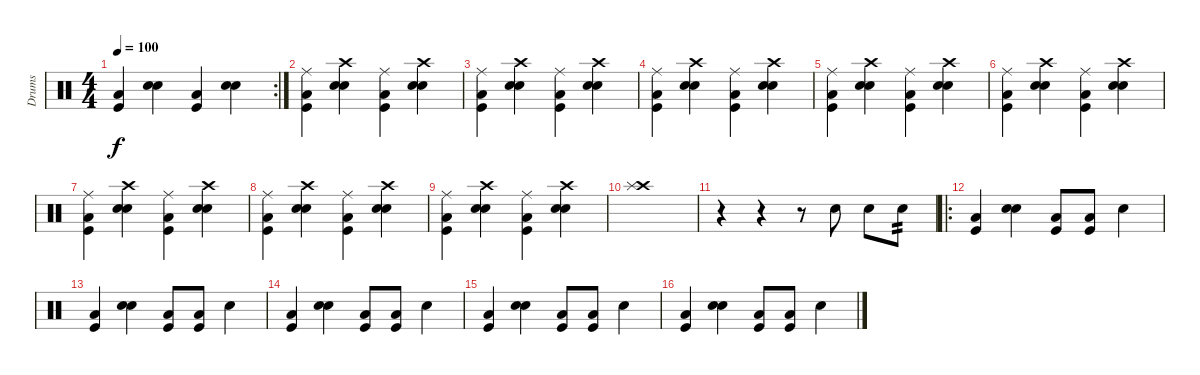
\track ("Drums" "Drums") {instrument percussion}
\staff {score}
\articulation defaults
\rc 2
\ts (4 4)
\tempo 100
\clef neutral
\ks c
("Kick (hit)" "Low Floor Tom (hit)").4{dy f} ("Snare (hit) 2" "Electric Snare (hit)").4 ("Kick (hit)" "Low Floor Tom (hit)").4 ("Snare (hit) 2" "Electric Snare (hit)").4 |
("Ride (middle)" "Kick (hit)" "Low Floor Tom (hit)").4 ("Crash high (hit)" "Snare (hit) 2" "Electric Snare (hit)").4 ("Ride (middle)" "Kick (hit)" "Low Floor Tom (hit)").4 ("Crash high (hit)" "Snare (hit) 2" "Electric Snare (hit)").4 |
("Ride (middle)" "Kick (hit)" "Low Floor Tom (hit)").4 ("Crash high (hit)" "Snare (hit) 2" "Electric Snare (hit)").4 ("Ride (middle)" "Kick (hit)" "Low Floor Tom (hit)").4 ("Crash high (hit)" "Snare (hit) 2" "Electric Snare (hit)").4 |
("Ride (middle)" "Kick (hit)" "Low Floor Tom (hit)").4 ("Crash high (hit)" "Snare (hit) 2" "Electric Snare (hit)").4 ("Ride (middle)" "Kick (hit)" "Low Floor Tom (hit)").4 ("Crash high (hit)" "Snare (hit) 2" "Electric Snare (hit)").4 |
("Ride (middle)" "Kick (hit)" "Low Floor Tom (hit)").4 ("Crash high (hit)" "Snare (hit) 2" "Electric Snare (hit)").4 ("Ride (middle)" "Kick (hit)" "Low Floor Tom (hit)").4 ("Crash high (hit)" "Snare (hit) 2" "Electric Snare (hit)").4 |
("Ride (middle)" "Kick (hit)" "Low Floor Tom (hit)").4 ("Crash high (hit)" "Snare (hit) 2" "Electric Snare (hit)").4 ("Ride (middle)" "Kick (hit)" "Low Floor Tom (hit)").4 ("Crash high (hit)" "Snare (hit) 2" "Electric Snare (hit)").4 |
("Ride (middle)" "Kick (hit)" "Low Floor Tom (hit)").4 ("Crash high (hit)" "Snare (hit) 2" "Electric Snare (hit)").4 ("Ride (middle)" "Kick (hit)" "Low Floor Tom (hit)").4 ("Crash high (hit)" "Snare (hit) 2" "Electric Snare (hit)").4 |
("Ride (middle)" "Kick (hit)" "Low Floor Tom (hit)").4 ("Crash high (hit)" "Snare (hit) 2" "Electric Snare (hit)").4 ("Ride (middle)" "Kick (hit)" "Low Floor Tom (hit)").4 ("Crash high (hit)" "Snare (hit) 2" "Electric Snare (hit)").4 |
("Ride (middle)" "Kick (hit)" "Low Floor Tom (hit)").4 ("Crash high (hit)" "Snare (hit) 2" "Electric Snare (hit)").4 ("Ride (middle)" "Kick (hit)" "Low Floor Tom (hit)").4 ("Crash high (hit)" "Snare (hit) 2" "Electric Snare (hit)").4 |
("Crash high (hit)" "Splash (hit)").1 |
r.4 r.4 r.8 "Snare (hit) 2".8 "Snare (hit) 2".8 "Snare (hit) 2".8{tp 2} |
\ro
("Kick (hit)" "Low Floor Tom (hit)").4 ("Snare (hit) 2" "Electric Snare (hit)").4 ("Kick (hit)" "Low Floor Tom (hit)").8 ("Kick (hit)" "Low Floor Tom (hit)").8 "Snare (hit) 2".4 |
("Kick (hit)" "Low Floor Tom (hit)").4 ("Snare (hit) 2" "Electric Snare (hit)").4 ("Kick (hit)" "Low Floor Tom (hit)").8 ("Kick (hit)" "Low Floor Tom (hit)").8 "Snare (hit) 2".4 |
("Kick (hit)" "Low Floor Tom (hit)").4 ("Snare (hit) 2" "Electric Snare (hit)").4 ("Kick (hit)" "Low Floor Tom (hit)").8 ("Kick (hit)" "Low Floor Tom (hit)").8 "Snare (hit) 2".4 |
("Kick (hit)" "Low Floor Tom (hit)").4 ("Snare (hit) 2" "Electric Snare (hit)").4 ("Kick (hit)" "Low Floor Tom (hit)").8 ("Kick (hit)" "Low Floor Tom (hit)").8 "Snare (hit) 2".4 |
("Kick (hit)" "Low Floor Tom (hit)").4 ("Snare (hit) 2" "Electric Snare (hit)").4 ("Kick (hit)" "Low Floor Tom (hit)").8 ("Kick (hit)" "Low Floor Tom (hit)").8 "Snare (hit) 2".4
